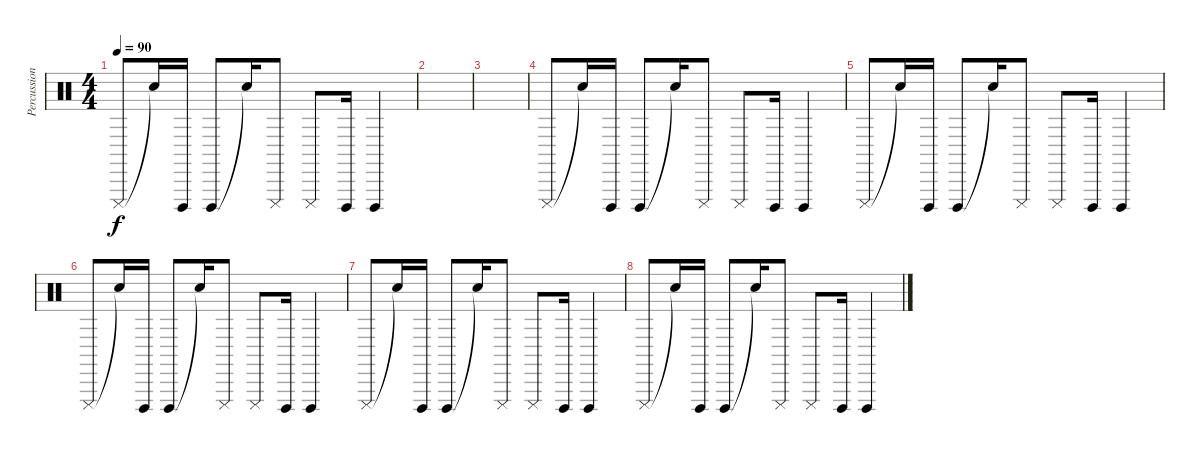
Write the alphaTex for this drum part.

\track ("Percussions" "Percussion") {instrument percussion}
\staff {score}
\articulation defaults
\ts (4 4)
\tempo 90
\clef neutral
\ks c "Cuica (mute)".8{dy f} "Snare (hit)"{t}.16 "Cuica (open)".16 "Cuica (open)".8 "Snare (hit)"{t}.16 "Cuica (mute)".8 "Cuica (mute)".8 "Cuica (open)".16 "Cuica (open)".4
|
|
|
"Cuica (mute)".8 "Snare (hit)"{t}.16 "Cuica (open)".16 "Cuica (open)".8 "Snare (hit)"{t}.16 "Cuica (mute)".8 "Cuica (mute)".8 "Cuica (open)".16 "Cuica (open)".4 |
"Cuica (mute)".8 "Snare (hit)"{t}.16 "Cuica (open)".16 "Cuica (open)".8 "Snare (hit)"{t}.16 "Cuica (mute)".8 "Cuica (mute)".8 "Cuica (open)".16 "Cuica (open)".4 |
"Cuica (mute)".8 "Snare (hit)"{t}.16 "Cuica (open)".16 "Cuica (open)".8 "Snare (hit)"{t}.16 "Cuica (mute)".8 "Cuica (mute)".8 "Cuica (open)".16 "Cuica (open)".4 |
"Cuica (mute)".8 "Snare (hit)"{t}.16 "Cuica (open)".16 "Cuica (open)".8 "Snare (hit)"{t}.16 "Cuica (mute)".8 "Cuica (mute)".8 "Cuica (open)".16 "Cuica (open)".4 |
"Cuica (mute)".8 "Snare (hit)"{t}.16 "Cuica (open)".16 "Cuica (open)".8 "Snare (hit)"{t}.16 "Cuica (mute)".8 "Cuica (mute)".8 "Cuica (open)".16 "Cuica (open)".4
